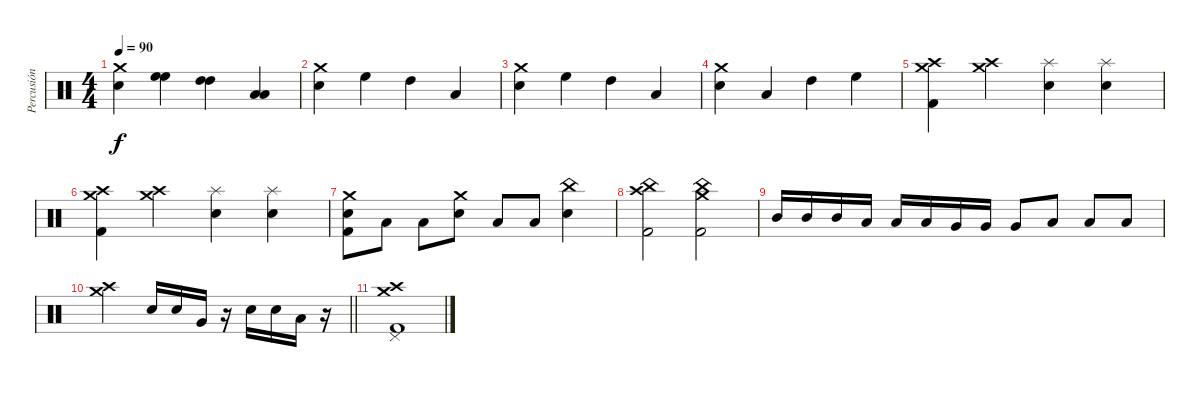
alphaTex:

\track ("Percusión" "Percusión") {instrument percussion}
\staff {score}
\articulation defaults
\ts (4 4)
\tempo 90
\clef neutral
\ks c
("Crash medium (hit)" "Electric Snare (hit)").4{dy f} ("High Floor Tom (hit)" "High Floor Tom (hit)").4 ("High Tom (hit)" "High Tom (hit)").4 ("Low Tom (hit)" "Low Tom (hit)").4 |
("Crash medium (hit)" "Electric Snare (hit)").4 "High Floor Tom (hit)".4 "High Tom (hit)".4 "Low Tom (hit)".4 |
("Crash medium (hit)" "Electric Snare (hit)").4 "High Floor Tom (hit)".4 "High Tom (hit)".4 "Low Tom (hit)".4 |
("Crash medium (hit)" "Electric Snare (hit)").4 "Low Tom (hit)".4 "High Tom (hit)".4 "High Floor Tom (hit)".4 |
("Crash medium (hit)" "Crash high (hit)" "Kick (hit) 2").4 ("Crash medium (hit)" "Crash high (hit)").4 ("Splash (hit)" "Electric Snare (hit)").4 ("Splash (hit)" "Electric Snare (hit)").4 |
("Crash medium (hit)" "Crash high (hit)" "Kick (hit) 2").4 ("Crash medium (hit)" "Crash high (hit)").4 ("Splash (hit)" "Electric Snare (hit)").4 ("Splash (hit)" "Electric Snare (hit)").4 |
("Crash medium (hit)" "Electric Snare (hit)" "Kick (hit) 2").8 "Low Tom (hit)".8 "Low Tom (hit)".8 ("Crash medium (hit)" "Electric Snare (hit)").8 "Low Tom (hit)".8 "Low Tom (hit)".8 ("China (hit)" "Electric Snare (hit)").4 |
("China (hit)" "Crash high (hit)" "Kick (hit) 2").2 ("China (hit)" "Crash medium (hit)" "Kick (hit) 2").2 |
"Mid Tom (hit)".16 "Mid Tom (hit)".16 "Mid Tom (hit)".16 "Low Tom (hit)".16 "Low Tom (hit)".16 "Low Tom (hit)".16 "Very Low Tom (hit)".16 "Very Low Tom (hit)".16 "Very Low Tom (hit)".8 "Low Floor Tom (hit)".8 "Low Floor Tom (hit)".8 "Low Floor Tom (hit)".8 |
\barLineRight lightlight
("Crash high (hit)" "Crash medium (hit)").2 "Electric Snare (hit)".16 "Electric Snare (hit)".16 "Very Low Tom (hit)".16 r.16 "Electric Snare (hit)".16 "Electric Snare (hit)".16 "Low Floor Tom (hit)".16 r.16 |
("Crash high (hit)" "Crash medium (hit)" "Pedal Hi-Hat (hit)" "Kick (hit) 2").1
